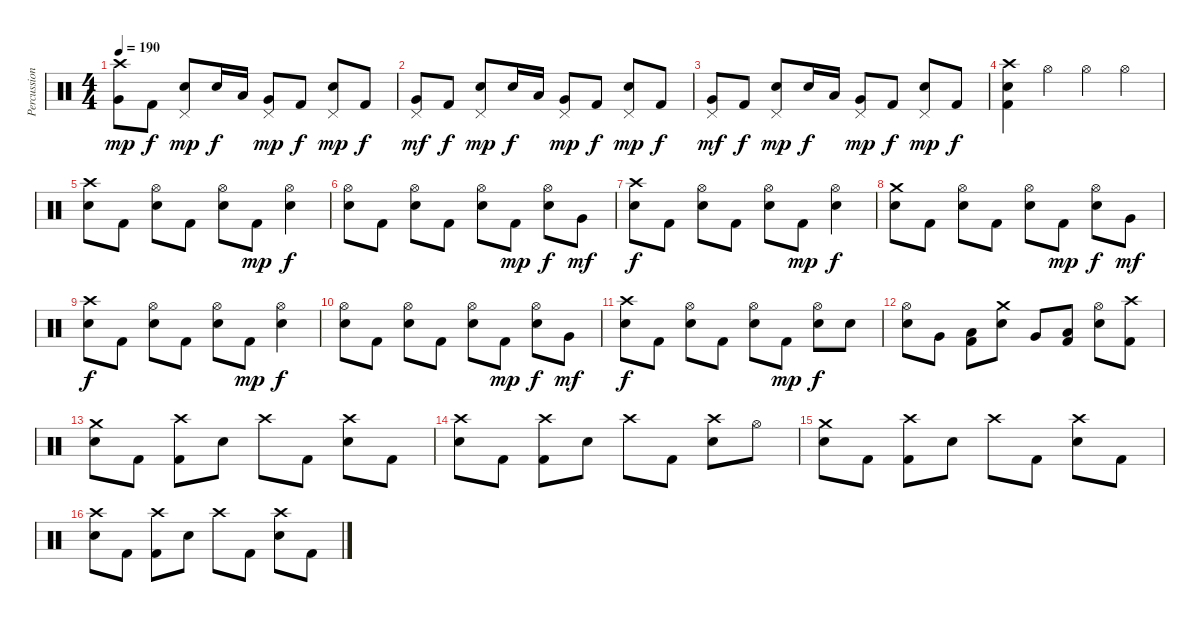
\track ("Percussions" "Percussion") {instrument percussion}
\staff {score}
\articulation defaults
\ts (4 4)
\tempo 190
\clef neutral
\ks c
("Crash high (hit)" "Very Low Tom (hit)").8{dy mp} "Kick (hit) 2".8{dy f} ("Pedal Hi-Hat (hit)" "Electric Snare (hit)").8{dy mp} "Electric Snare (hit)".16{dy f} "Low Tom (hit)".16 ("Pedal Hi-Hat (hit)" "Very Low Tom (hit)").8{dy mp} "Kick (hit) 2".8{dy f} ("Pedal Hi-Hat (hit)" "Electric Snare (hit)").8{dy mp} "Kick (hit) 2".8{dy f} |
("Pedal Hi-Hat (hit)" "Very Low Tom (hit)").8{dy mf} "Kick (hit) 2".8{dy f} ("Pedal Hi-Hat (hit)" "Electric Snare (hit)").8{dy mp} "Electric Snare (hit)".16{dy f} "Low Tom (hit)".16 ("Pedal Hi-Hat (hit)" "Very Low Tom (hit)").8{dy mp} "Kick (hit) 2".8{dy f} ("Pedal Hi-Hat (hit)" "Electric Snare (hit)").8{dy mp} "Kick (hit) 2".8{dy f} |
("Pedal Hi-Hat (hit)" "Very Low Tom (hit)").8{dy mf} "Kick (hit) 2".8{dy f} ("Pedal Hi-Hat (hit)" "Electric Snare (hit)").8{dy mp} "Electric Snare (hit)".16{dy f} "Low Tom (hit)".16 ("Pedal Hi-Hat (hit)" "Very Low Tom (hit)").8{dy mp} "Kick (hit) 2".8{dy f} ("Pedal Hi-Hat (hit)" "Electric Snare (hit)").8{dy mp} "Kick (hit) 2".8{dy f} |
("Crash high (hit)" "Electric Snare (hit)" "Kick (hit) 2").4 "Hi-Hat (open)".4 "Hi-Hat (open)".4 "Hi-Hat (open)".4 |
("Crash high (hit)" "Electric Snare (hit)").8 "Kick (hit) 2".8 ("Hi-Hat (open)" "Electric Snare (hit)").8 "Kick (hit) 2".8 ("Hi-Hat (open)" "Electric Snare (hit)").8 "Kick (hit) 2".8{dy mp} ("Electric Snare (hit)" "Hi-Hat (open)").4{dy f} |
("Hi-Hat (open)" "Electric Snare (hit)").8 "Kick (hit) 2".8 ("Hi-Hat (open)" "Electric Snare (hit)").8 "Kick (hit) 2".8 ("Hi-Hat (open)" "Electric Snare (hit)").8 "Kick (hit) 2".8{dy mp} ("Hi-Hat (open)" "Electric Snare (hit)").8{dy f} "Very Low Tom (hit)".8{dy mf} |
("Crash high (hit)" "Electric Snare (hit)").8{dy f} "Kick (hit) 2".8 ("Hi-Hat (open)" "Electric Snare (hit)").8 "Kick (hit) 2".8 ("Hi-Hat (open)" "Electric Snare (hit)").8 "Kick (hit) 2".8{dy mp} ("Electric Snare (hit)" "Hi-Hat (open)").4{dy f} |
("Crash medium (hit)" "Electric Snare (hit)").8 "Kick (hit) 2".8 ("Hi-Hat (open)" "Electric Snare (hit)").8 "Kick (hit) 2".8 ("Hi-Hat (open)" "Electric Snare (hit)").8 "Kick (hit) 2".8{dy mp} ("Hi-Hat (open)" "Electric Snare (hit)").8{dy f} "Very Low Tom (hit)".8{dy mf} |
("Crash high (hit)" "Electric Snare (hit)").8{dy f} "Kick (hit) 2".8 ("Hi-Hat (open)" "Electric Snare (hit)").8 "Kick (hit) 2".8 ("Hi-Hat (open)" "Electric Snare (hit)").8 "Kick (hit) 2".8{dy mp} ("Electric Snare (hit)" "Hi-Hat (open)").4{dy f} |
("Hi-Hat (open)" "Electric Snare (hit)").8 "Kick (hit) 2".8 ("Hi-Hat (open)" "Electric Snare (hit)").8 "Kick (hit) 2".8 ("Hi-Hat (open)" "Electric Snare (hit)").8 "Kick (hit) 2".8{dy mp} ("Hi-Hat (open)" "Electric Snare (hit)").8{dy f} "Very Low Tom (hit)".8{dy mf} |
("Crash high (hit)" "Electric Snare (hit)").8{dy f} "Kick (hit) 2".8 ("Hi-Hat (open)" "Electric Snare (hit)").8 "Kick (hit) 2".8 ("Hi-Hat (open)" "Electric Snare (hit)").8 "Kick (hit) 2".8{dy mp} ("Electric Snare (hit)" "Hi-Hat (open)").8{dy f} "Electric Snare (hit)".8 |
("Hi-Hat (open)" "Electric Snare (hit)").8 "Very Low Tom (hit)".8 ("Low Floor Tom (hit)" "Kick (hit) 2").8 ("Crash medium (hit)" "Electric Snare (hit)").8 "Very Low Tom (hit)".8 ("Low Floor Tom (hit)" "Kick (hit) 2").8 ("Hi-Hat (open)" "Electric Snare (hit)").8 ("Crash high (hit)" "Kick (hit) 2").8 |
("Crash medium (hit)" "Electric Snare (hit)").8 "Kick (hit) 2".8 ("Crash high (hit)" "Kick (hit) 2").8 "Electric Snare (hit)".8 "Crash high (hit)".8 "Kick (hit) 2".8 ("Crash high (hit)" "Electric Snare (hit)").8 "Kick (hit) 2".8 |
("Crash high (hit)" "Electric Snare (hit)").8 "Kick (hit) 2".8 ("Crash high (hit)" "Kick (hit) 2").8 "Electric Snare (hit)".8 "Crash high (hit)".8 "Kick (hit) 2".8 ("Crash high (hit)" "Electric Snare (hit)").8 "Hi-Hat (open)".8 |
("Crash medium (hit)" "Electric Snare (hit)").8 "Kick (hit) 2".8 ("Crash high (hit)" "Kick (hit) 2").8 "Electric Snare (hit)".8 "Crash high (hit)".8 "Kick (hit) 2".8 ("Crash high (hit)" "Electric Snare (hit)").8 "Kick (hit) 2".8 |
("Crash high (hit)" "Electric Snare (hit)").8 "Kick (hit) 2".8 ("Crash high (hit)" "Kick (hit) 2").8 "Electric Snare (hit)".8 "Crash high (hit)".8 "Kick (hit) 2".8 ("Crash high (hit)" "Electric Snare (hit)").8 "Kick (hit) 2".8
